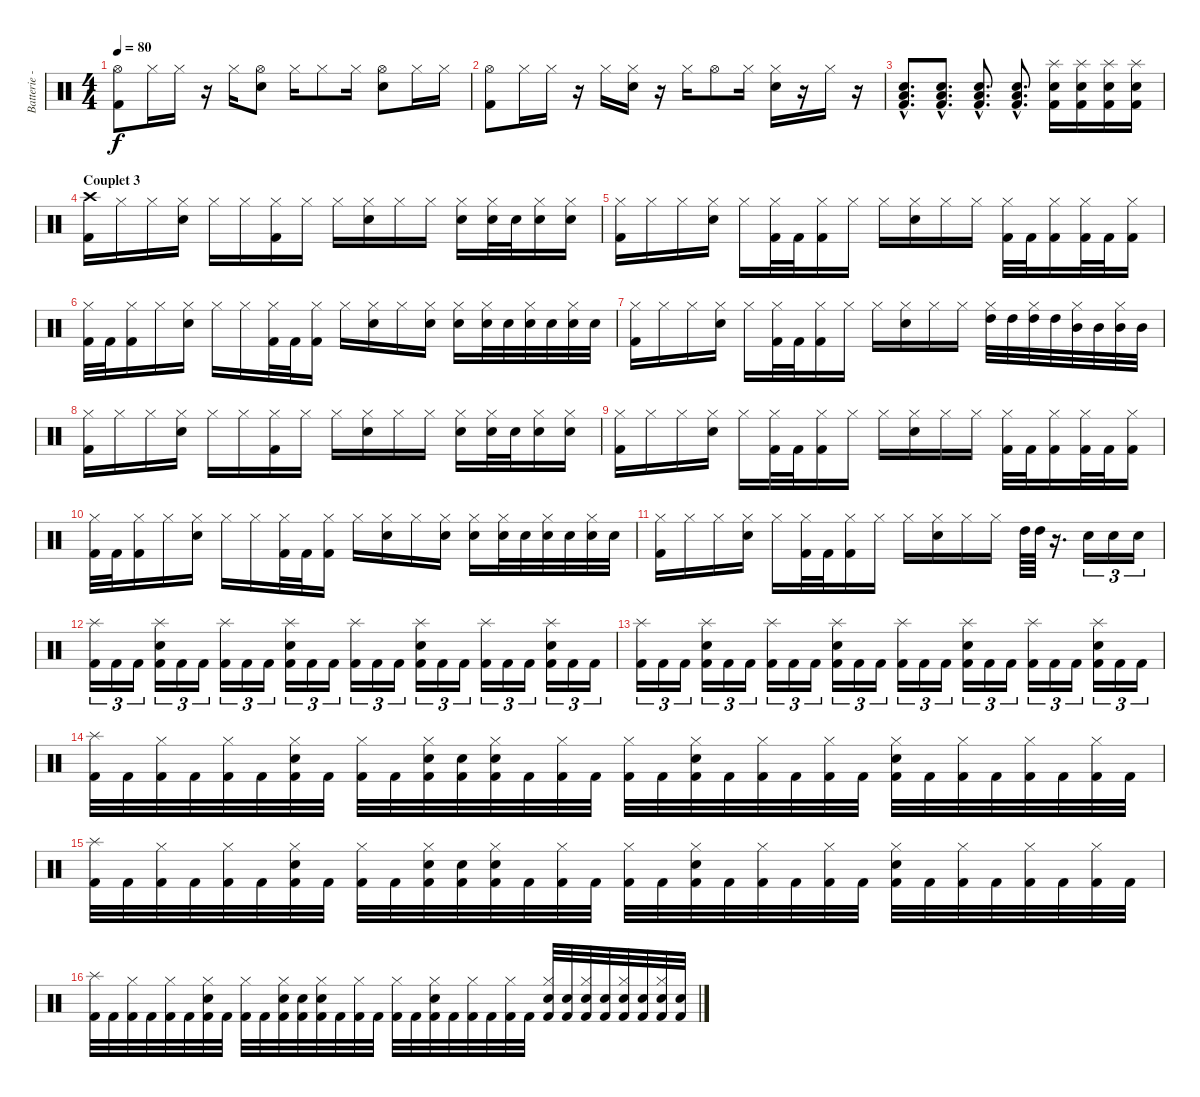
\track ("Batterie - François" "Batterie -") {instrument percussion}
\staff {score}
\articulation defaults
\ts (4 4)
\tempo 80
\clef neutral
\ks c
("Hi-Hat (open)" "Kick (hit) 2").8{dy f} "Hi-Hat (closed)".16 "Hi-Hat (closed)".16 r.16 "Hi-Hat (closed)".16 ("Hi-Hat (open)" "Electric Snare (hit)").8 "Hi-Hat (closed)".16 "Hi-Hat (closed)".8 "Hi-Hat (closed)".16 ("Hi-Hat (open)" "Electric Snare (hit)").8 "Hi-Hat (closed)".16 "Hi-Hat (closed)".16 |
("Hi-Hat (open)" "Kick (hit) 2").8 "Hi-Hat (closed)".16 "Hi-Hat (closed)".16 r.16 "Hi-Hat (closed)".16 ("Hi-Hat (closed)" "Electric Snare (hit)").16 r.16 "Hi-Hat (closed)".16 "Hi-Hat (open)".8 "Hi-Hat (closed)".16 ("Hi-Hat (closed)" "Electric Snare (hit)").16 r.16 "Hi-Hat (closed)".16 r.16 |
("Electric Snare (hit)"{hac} "Low Tom (hit)"{hac} "Kick (hit) 2"{hac}).8{d} ("Electric Snare (hit)"{hac} "Low Tom (hit)"{hac} "Kick (hit) 2"{hac}).8{d} ("Electric Snare (hit)"{hac} "Low Tom (hit)"{hac} "Kick (hit) 2"{hac}).8{d} ("Electric Snare (hit)"{hac} "Low Tom (hit)"{hac} "Kick (hit) 2"{hac}).8{d} ("Splash (hit)" "Electric Snare (hit)" "Kick (hit) 2").16 ("Splash (hit)" "Electric Snare (hit)" "Kick (hit) 2").16 ("Splash (hit)" "Electric Snare (hit)" "Kick (hit) 2").16 ("Splash (hit)" "Electric Snare (hit)" "Kick (hit) 2").16 |
\section ("" "Couplet 3")
("Crash high (hit)" "Kick (hit) 2").16 "Hi-Hat (closed)".16 "Hi-Hat (closed)".16 ("Hi-Hat (closed)" "Electric Snare (hit)").16 "Hi-Hat (closed)".16 "Hi-Hat (closed)".16 ("Hi-Hat (closed)" "Kick (hit) 2").16 "Hi-Hat (closed)".16 "Hi-Hat (closed)".16 ("Hi-Hat (closed)" "Electric Snare (hit)").16 "Hi-Hat (closed)".16 "Hi-Hat (closed)".16 ("Hi-Hat (closed)" "Electric Snare (hit)").16 ("Hi-Hat (closed)" "Electric Snare (hit)").32 "Electric Snare (hit)".32 ("Hi-Hat (closed)" "Electric Snare (hit)").16 ("Hi-Hat (closed)" "Electric Snare (hit)").16 |
("Hi-Hat (closed)" "Kick (hit) 2").16 "Hi-Hat (closed)".16 "Hi-Hat (closed)".16 ("Hi-Hat (closed)" "Electric Snare (hit)").16 "Hi-Hat (closed)".16 ("Hi-Hat (closed)" "Kick (hit) 2").32 "Kick (hit) 2".32 ("Hi-Hat (closed)" "Kick (hit) 2").16 "Hi-Hat (closed)".16 "Hi-Hat (closed)".16 ("Hi-Hat (closed)" "Electric Snare (hit)").16 "Hi-Hat (closed)".16 "Hi-Hat (closed)".16 ("Hi-Hat (closed)" "Kick (hit) 2").32 "Kick (hit) 2".32 ("Hi-Hat (closed)" "Kick (hit) 2").16 ("Hi-Hat (closed)" "Kick (hit) 2").32 "Kick (hit) 2".32 ("Hi-Hat (closed)" "Kick (hit) 2").16 |
("Hi-Hat (closed)" "Kick (hit) 2").32 "Kick (hit) 2".32 ("Hi-Hat (closed)" "Kick (hit) 2").16 "Hi-Hat (closed)".16 ("Hi-Hat (closed)" "Electric Snare (hit)").16 "Hi-Hat (closed)".16 "Hi-Hat (closed)".16 ("Hi-Hat (closed)" "Kick (hit) 2").32 "Kick (hit) 2".32 ("Hi-Hat (closed)" "Kick (hit) 2").16 "Hi-Hat (closed)".16 ("Hi-Hat (closed)" "Electric Snare (hit)").16 "Hi-Hat (closed)".16 ("Hi-Hat (closed)" "Electric Snare (hit)").16 ("Hi-Hat (closed)" "Electric Snare (hit)").16 ("Hi-Hat (closed)" "Electric Snare (hit)").32 "Electric Snare (hit)".32 ("Hi-Hat (closed)" "Electric Snare (hit)").32 "Electric Snare (hit)".32 ("Hi-Hat (closed)" "Electric Snare (hit)").32 "Electric Snare (hit)".32 |
("Hi-Hat (closed)" "Kick (hit) 2").16 "Hi-Hat (closed)".16 "Hi-Hat (closed)".16 ("Hi-Hat (closed)" "Electric Snare (hit)").16 "Hi-Hat (closed)".16 ("Hi-Hat (closed)" "Kick (hit) 2").32 "Kick (hit) 2".32 ("Hi-Hat (closed)" "Kick (hit) 2").16 "Hi-Hat (closed)".16 "Hi-Hat (closed)".16 ("Hi-Hat (closed)" "Electric Snare (hit)").16 "Hi-Hat (closed)".16 "Hi-Hat (closed)".16 ("Hi-Hat (closed)" "High Tom (hit)").32 "High Tom (hit)".32 ("Hi-Hat (closed)" "High Tom (hit)").32 "High Tom (hit)".32 ("Hi-Hat (closed)" "Mid Tom (hit)").32 "Mid Tom (hit)".32 ("Hi-Hat (closed)" "Mid Tom (hit)").32 "Mid Tom (hit)".32 |
("Hi-Hat (closed)" "Kick (hit) 2").16 "Hi-Hat (closed)".16 "Hi-Hat (closed)".16 ("Hi-Hat (closed)" "Electric Snare (hit)").16 "Hi-Hat (closed)".16 "Hi-Hat (closed)".16 ("Hi-Hat (closed)" "Kick (hit) 2").16 "Hi-Hat (closed)".16 "Hi-Hat (closed)".16 ("Hi-Hat (closed)" "Electric Snare (hit)").16 "Hi-Hat (closed)".16 "Hi-Hat (closed)".16 ("Hi-Hat (closed)" "Electric Snare (hit)").16 ("Hi-Hat (closed)" "Electric Snare (hit)").32 "Electric Snare (hit)".32 ("Hi-Hat (closed)" "Electric Snare (hit)").16 ("Hi-Hat (closed)" "Electric Snare (hit)").16 |
("Hi-Hat (closed)" "Kick (hit) 2").16 "Hi-Hat (closed)".16 "Hi-Hat (closed)".16 ("Hi-Hat (closed)" "Electric Snare (hit)").16 "Hi-Hat (closed)".16 ("Hi-Hat (closed)" "Kick (hit) 2").32 "Kick (hit) 2".32 ("Hi-Hat (closed)" "Kick (hit) 2").16 "Hi-Hat (closed)".16 "Hi-Hat (closed)".16 ("Hi-Hat (closed)" "Electric Snare (hit)").16 "Hi-Hat (closed)".16 "Hi-Hat (closed)".16 ("Hi-Hat (closed)" "Kick (hit) 2").32 "Kick (hit) 2".32 ("Hi-Hat (closed)" "Kick (hit) 2").16 ("Hi-Hat (closed)" "Kick (hit) 2").32 "Kick (hit) 2".32 ("Hi-Hat (closed)" "Kick (hit) 2").16 |
("Hi-Hat (closed)" "Kick (hit) 2").32 "Kick (hit) 2".32 ("Hi-Hat (closed)" "Kick (hit) 2").16 "Hi-Hat (closed)".16 ("Hi-Hat (closed)" "Electric Snare (hit)").16 "Hi-Hat (closed)".16 "Hi-Hat (closed)".16 ("Hi-Hat (closed)" "Kick (hit) 2").32 "Kick (hit) 2".32 ("Hi-Hat (closed)" "Kick (hit) 2").16 "Hi-Hat (closed)".16 ("Hi-Hat (closed)" "Electric Snare (hit)").16 "Hi-Hat (closed)".16 ("Hi-Hat (closed)" "Electric Snare (hit)").16 ("Hi-Hat (closed)" "Electric Snare (hit)").16 ("Hi-Hat (closed)" "Electric Snare (hit)").32 "Electric Snare (hit)".32 ("Hi-Hat (closed)" "Electric Snare (hit)").32 "Electric Snare (hit)".32 ("Hi-Hat (closed)" "Electric Snare (hit)").32 "Electric Snare (hit)".32 |
("Hi-Hat (closed)" "Kick (hit) 2").16 "Hi-Hat (closed)".16 "Hi-Hat (closed)".16 ("Hi-Hat (closed)" "Electric Snare (hit)").16 "Hi-Hat (closed)".16 ("Hi-Hat (closed)" "Kick (hit) 2").32 "Kick (hit) 2".32 ("Hi-Hat (closed)" "Kick (hit) 2").16 "Hi-Hat (closed)".16 "Hi-Hat (closed)".16 ("Hi-Hat (closed)" "Electric Snare (hit)").16 "Hi-Hat (closed)".16 "Hi-Hat (closed)".16 "High Tom (hit)".64 "High Tom (hit)".64 r.16{d} "Electric Snare (hit)".16{tu (3 2)} "Electric Snare (hit)".16{tu (3 2)} "Electric Snare (hit)".16{tu (3 2)} |
("Splash (hit)" "Kick (hit) 2").16{tu (3 2)} "Kick (hit) 2".16{tu (3 2)} "Kick (hit) 2".16{tu (3 2)} ("Splash (hit)" "Electric Snare (hit)" "Kick (hit) 2").16{tu (3 2)} "Kick (hit) 2".16{tu (3 2)} "Kick (hit) 2".16{tu (3 2)} ("Splash (hit)" "Kick (hit) 2").16{tu (3 2)} "Kick (hit) 2".16{tu (3 2)} "Kick (hit) 2".16{tu (3 2)} ("Splash (hit)" "Electric Snare (hit)" "Kick (hit) 2").16{tu (3 2)} "Kick (hit) 2".16{tu (3 2)} "Kick (hit) 2".16{tu (3 2)} ("Splash (hit)" "Kick (hit) 2").16{tu (3 2)} "Kick (hit) 2".16{tu (3 2)} "Kick (hit) 2".16{tu (3 2)} ("Splash (hit)" "Electric Snare (hit)" "Kick (hit) 2").16{tu (3 2)} "Kick (hit) 2".16{tu (3 2)} "Kick (hit) 2".16{tu (3 2)} ("Splash (hit)" "Kick (hit) 2").16{tu (3 2)} "Kick (hit) 2".16{tu (3 2)} "Kick (hit) 2".16{tu (3 2)} ("Splash (hit)" "Electric Snare (hit)" "Kick (hit) 2").16{tu (3 2)} "Kick (hit) 2".16{tu (3 2)} "Kick (hit) 2".16{tu (3 2)} |
("Splash (hit)" "Kick (hit) 2").16{tu (3 2)} "Kick (hit) 2".16{tu (3 2)} "Kick (hit) 2".16{tu (3 2)} ("Splash (hit)" "Electric Snare (hit)" "Kick (hit) 2").16{tu (3 2)} "Kick (hit) 2".16{tu (3 2)} "Kick (hit) 2".16{tu (3 2)} ("Splash (hit)" "Kick (hit) 2").16{tu (3 2)} "Kick (hit) 2".16{tu (3 2)} "Kick (hit) 2".16{tu (3 2)} ("Splash (hit)" "Electric Snare (hit)" "Kick (hit) 2").16{tu (3 2)} "Kick (hit) 2".16{tu (3 2)} "Kick (hit) 2".16{tu (3 2)} ("Splash (hit)" "Kick (hit) 2").16{tu (3 2)} "Kick (hit) 2".16{tu (3 2)} "Kick (hit) 2".16{tu (3 2)} ("Splash (hit)" "Electric Snare (hit)" "Kick (hit) 2").16{tu (3 2)} "Kick (hit) 2".16{tu (3 2)} "Kick (hit) 2".16{tu (3 2)} ("Splash (hit)" "Kick (hit) 2").16{tu (3 2)} "Kick (hit) 2".16{tu (3 2)} "Kick (hit) 2".16{tu (3 2)} ("Splash (hit)" "Electric Snare (hit)" "Kick (hit) 2").16{tu (3 2)} "Kick (hit) 2".16{tu (3 2)} "Kick (hit) 2".16{tu (3 2)} |
("Splash (hit)" "Kick (hit) 2").32 "Kick (hit) 2".32 ("Hi-Hat (closed)" "Kick (hit) 2").32 "Kick (hit) 2".32 ("Hi-Hat (closed)" "Kick (hit) 2").32 "Kick (hit) 2".32 ("Hi-Hat (closed)" "Electric Snare (hit)" "Kick (hit) 2").32 "Kick (hit) 2".32 ("Hi-Hat (closed)" "Kick (hit) 2").32 "Kick (hit) 2".32 ("Hi-Hat (closed)" "Electric Snare (hit)" "Kick (hit) 2").32 ("Electric Snare (hit)" "Kick (hit) 2").32 ("Hi-Hat (closed)" "Electric Snare (hit)" "Kick (hit) 2").32 "Kick (hit) 2".32 ("Hi-Hat (closed)" "Kick (hit) 2").32 "Kick (hit) 2".32 ("Hi-Hat (closed)" "Kick (hit) 2").32 "Kick (hit) 2".32 ("Hi-Hat (closed)" "Electric Snare (hit)" "Kick (hit) 2").32 "Kick (hit) 2".32 ("Hi-Hat (closed)" "Kick (hit) 2").32 "Kick (hit) 2".32 ("Hi-Hat (closed)" "Kick (hit) 2").32 "Kick (hit) 2".32 ("Hi-Hat (closed)" "Electric Snare (hit)" "Kick (hit) 2").32 "Kick (hit) 2".32 ("Hi-Hat (closed)" "Kick (hit) 2").32 "Kick (hit) 2".32 ("Hi-Hat (closed)" "Kick (hit) 2").32 "Kick (hit) 2".32 ("Hi-Hat (closed)" "Kick (hit) 2").32 "Kick (hit) 2".32 |
("Splash (hit)" "Kick (hit) 2").32 "Kick (hit) 2".32 ("Hi-Hat (closed)" "Kick (hit) 2").32 "Kick (hit) 2".32 ("Hi-Hat (closed)" "Kick (hit) 2").32 "Kick (hit) 2".32 ("Hi-Hat (closed)" "Electric Snare (hit)" "Kick (hit) 2").32 "Kick (hit) 2".32 ("Hi-Hat (closed)" "Kick (hit) 2").32 "Kick (hit) 2".32 ("Hi-Hat (closed)" "Electric Snare (hit)" "Kick (hit) 2").32 ("Electric Snare (hit)" "Kick (hit) 2").32 ("Hi-Hat (closed)" "Electric Snare (hit)" "Kick (hit) 2").32 "Kick (hit) 2".32 ("Hi-Hat (closed)" "Kick (hit) 2").32 "Kick (hit) 2".32 ("Hi-Hat (closed)" "Kick (hit) 2").32 "Kick (hit) 2".32 ("Hi-Hat (closed)" "Electric Snare (hit)" "Kick (hit) 2").32 "Kick (hit) 2".32 ("Hi-Hat (closed)" "Kick (hit) 2").32 "Kick (hit) 2".32 ("Hi-Hat (closed)" "Kick (hit) 2").32 "Kick (hit) 2".32 ("Hi-Hat (closed)" "Electric Snare (hit)" "Kick (hit) 2").32 "Kick (hit) 2".32 ("Hi-Hat (closed)" "Kick (hit) 2").32 "Kick (hit) 2".32 ("Hi-Hat (closed)" "Kick (hit) 2").32 "Kick (hit) 2".32 ("Hi-Hat (closed)" "Kick (hit) 2").32 "Kick (hit) 2".32 |
("Splash (hit)" "Kick (hit) 2").32 "Kick (hit) 2".32 ("Hi-Hat (closed)" "Kick (hit) 2").32 "Kick (hit) 2".32 ("Hi-Hat (closed)" "Kick (hit) 2").32 "Kick (hit) 2".32 ("Hi-Hat (closed)" "Electric Snare (hit)" "Kick (hit) 2").32 "Kick (hit) 2".32 ("Hi-Hat (closed)" "Kick (hit) 2").32 "Kick (hit) 2".32 ("Hi-Hat (closed)" "Electric Snare (hit)" "Kick (hit) 2").32 ("Electric Snare (hit)" "Kick (hit) 2").32 ("Hi-Hat (closed)" "Electric Snare (hit)" "Kick (hit) 2").32 "Kick (hit) 2".32 ("Hi-Hat (closed)" "Kick (hit) 2").32 "Kick (hit) 2".32 ("Hi-Hat (closed)" "Kick (hit) 2").32 "Kick (hit) 2".32 ("Hi-Hat (closed)" "Electric Snare (hit)" "Kick (hit) 2").32 "Kick (hit) 2".32 ("Hi-Hat (closed)" "Kick (hit) 2").32 "Kick (hit) 2".32 ("Hi-Hat (closed)" "Kick (hit) 2").32 "Kick (hit) 2".32 ("Hi-Hat (closed)" "Electric Snare (hit)" "Kick (hit) 2").32 ("Electric Snare (hit)" "Kick (hit) 2").32 ("Hi-Hat (closed)" "Electric Snare (hit)" "Kick (hit) 2").32 ("Electric Snare (hit)" "Kick (hit) 2").32 ("Hi-Hat (closed)" "Electric Snare (hit)" "Kick (hit) 2").32 ("Electric Snare (hit)" "Kick (hit) 2").32 ("Hi-Hat (closed)" "Electric Snare (hit)" "Kick (hit) 2").32 ("Electric Snare (hit)" "Kick (hit) 2").32
